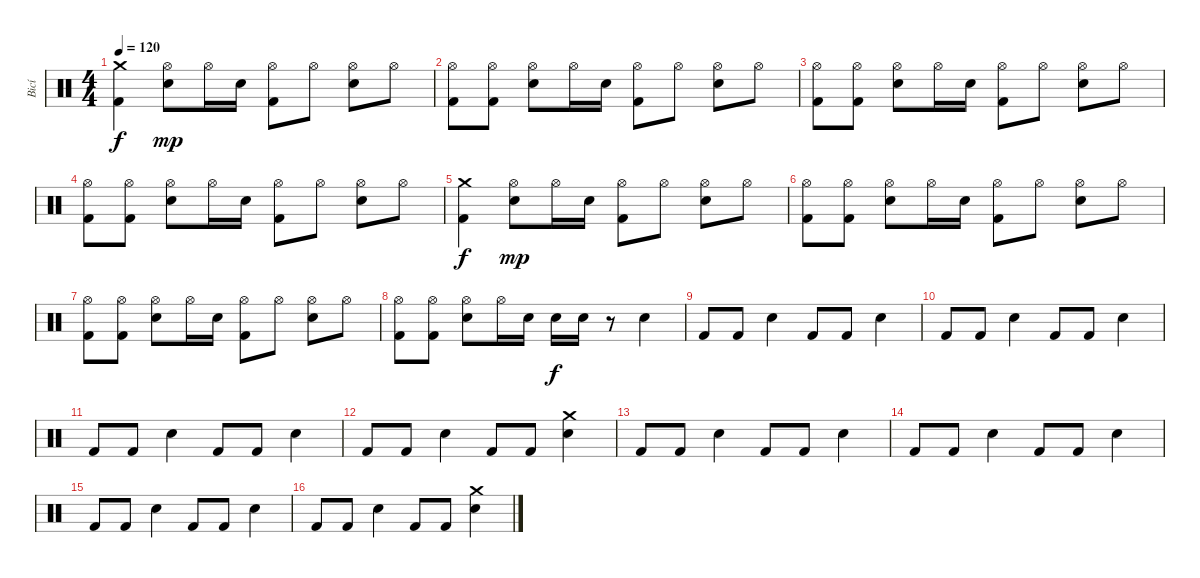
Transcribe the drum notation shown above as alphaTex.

\track ("Bicí" "Bicí") {instrument percussion}
\staff {score}
\articulation defaults
\ts (4 4)
\tempo 120
\clef neutral
\ks c
("Crash medium (hit)" "Kick (hit) 2").4{dy f} ("Hi-Hat (open)" "Electric Snare (hit)").8{dy mp} "Hi-Hat (open)".16 "Electric Snare (hit)".16 ("Hi-Hat (open)" "Kick (hit) 2").8 "Hi-Hat (open)".8 ("Hi-Hat (open)" "Electric Snare (hit)").8 "Hi-Hat (open)".8 |
("Hi-Hat (open)" "Kick (hit) 2").8 ("Hi-Hat (open)" "Kick (hit) 2").8 ("Hi-Hat (open)" "Electric Snare (hit)").8 "Hi-Hat (open)".16 "Electric Snare (hit)".16 ("Hi-Hat (open)" "Kick (hit) 2").8 "Hi-Hat (open)".8 ("Hi-Hat (open)" "Electric Snare (hit)").8 "Hi-Hat (open)".8 |
("Hi-Hat (open)" "Kick (hit) 2").8 ("Hi-Hat (open)" "Kick (hit) 2").8 ("Hi-Hat (open)" "Electric Snare (hit)").8 "Hi-Hat (open)".16 "Electric Snare (hit)".16 ("Hi-Hat (open)" "Kick (hit) 2").8 "Hi-Hat (open)".8 ("Hi-Hat (open)" "Electric Snare (hit)").8 "Hi-Hat (open)".8 |
("Hi-Hat (open)" "Kick (hit) 2").8 ("Hi-Hat (open)" "Kick (hit) 2").8 ("Hi-Hat (open)" "Electric Snare (hit)").8 "Hi-Hat (open)".16 "Electric Snare (hit)".16 ("Hi-Hat (open)" "Kick (hit) 2").8 "Hi-Hat (open)".8 ("Hi-Hat (open)" "Electric Snare (hit)").8 "Hi-Hat (open)".8 |
("Crash medium (hit)" "Kick (hit) 2").4{dy f} ("Hi-Hat (open)" "Electric Snare (hit)").8{dy mp} "Hi-Hat (open)".16 "Electric Snare (hit)".16 ("Hi-Hat (open)" "Kick (hit) 2").8 "Hi-Hat (open)".8 ("Hi-Hat (open)" "Electric Snare (hit)").8 "Hi-Hat (open)".8 |
("Hi-Hat (open)" "Kick (hit) 2").8 ("Hi-Hat (open)" "Kick (hit) 2").8 ("Hi-Hat (open)" "Electric Snare (hit)").8 "Hi-Hat (open)".16 "Electric Snare (hit)".16 ("Hi-Hat (open)" "Kick (hit) 2").8 "Hi-Hat (open)".8 ("Hi-Hat (open)" "Electric Snare (hit)").8 "Hi-Hat (open)".8 |
("Hi-Hat (open)" "Kick (hit) 2").8 ("Hi-Hat (open)" "Kick (hit) 2").8 ("Hi-Hat (open)" "Electric Snare (hit)").8 "Hi-Hat (open)".16 "Electric Snare (hit)".16 ("Hi-Hat (open)" "Kick (hit) 2").8 "Hi-Hat (open)".8 ("Hi-Hat (open)" "Electric Snare (hit)").8 "Hi-Hat (open)".8 |
("Hi-Hat (open)" "Kick (hit) 2").8 ("Hi-Hat (open)" "Kick (hit) 2").8 ("Hi-Hat (open)" "Electric Snare (hit)").8 "Hi-Hat (open)".16 "Electric Snare (hit)".16 "Electric Snare (hit)".16{dy f} "Electric Snare (hit)".16 r.8 "Electric Snare (hit)".4 |
"Kick (hit) 2".8 "Kick (hit) 2".8 "Electric Snare (hit)".4 "Kick (hit) 2".8 "Kick (hit) 2".8 "Electric Snare (hit)".4 |
"Kick (hit) 2".8 "Kick (hit) 2".8 "Electric Snare (hit)".4 "Kick (hit) 2".8 "Kick (hit) 2".8 "Electric Snare (hit)".4 |
"Kick (hit) 2".8 "Kick (hit) 2".8 "Electric Snare (hit)".4 "Kick (hit) 2".8 "Kick (hit) 2".8 "Electric Snare (hit)".4 |
"Kick (hit) 2".8 "Kick (hit) 2".8 "Electric Snare (hit)".4 "Kick (hit) 2".8 "Kick (hit) 2".8 ("Electric Snare (hit)" "Crash medium (hit)").4 |
"Kick (hit) 2".8 "Kick (hit) 2".8 "Electric Snare (hit)".4 "Kick (hit) 2".8 "Kick (hit) 2".8 "Electric Snare (hit)".4 |
"Kick (hit) 2".8 "Kick (hit) 2".8 "Electric Snare (hit)".4 "Kick (hit) 2".8 "Kick (hit) 2".8 "Electric Snare (hit)".4 |
"Kick (hit) 2".8 "Kick (hit) 2".8 "Electric Snare (hit)".4 "Kick (hit) 2".8 "Kick (hit) 2".8 "Electric Snare (hit)".4 |
"Kick (hit) 2".8 "Kick (hit) 2".8 "Electric Snare (hit)".4 "Kick (hit) 2".8 "Kick (hit) 2".8 ("Electric Snare (hit)" "Crash medium (hit)").4
